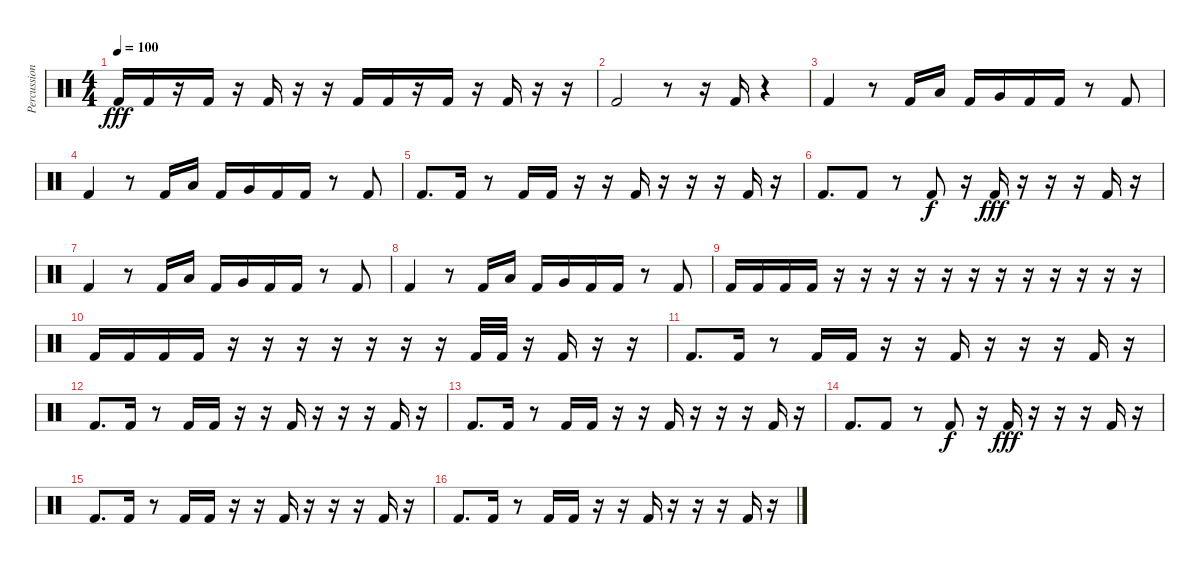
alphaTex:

\track ("Percussion" "Percussion") {instrument percussion}
\staff {score}
\articulation defaults
\ts (4 4)
\tempo 100
\clef neutral
\ks c "Kick (hit) 2".16{dy fff} "Kick (hit) 2".16
r.16 "Kick (hit) 2".16 r.16 "Kick (hit) 2".16 r.16 r.16 "Kick (hit) 2".16 "Kick (hit) 2".16 r.16 "Kick (hit) 2".16 r.16 "Kick (hit) 2".16 r.16 r.16 |
"Kick (hit) 2".2 r.8 r.16 "Kick (hit) 2".16 r.4 |
"Kick (hit) 2".4 r.8 "Kick (hit) 2".16 "Low Tom (hit)".16 "Kick (hit) 2".16 "Very Low Tom (hit)".16 "Kick (hit) 2".16 "Kick (hit) 2".16 r.8 "Kick (hit) 2".8 |
"Kick (hit) 2".4 r.8 "Kick (hit) 2".16 "Low Tom (hit)".16 "Kick (hit) 2".16 "Very Low Tom (hit)".16 "Kick (hit) 2".16 "Kick (hit) 2".16 r.8 "Kick (hit) 2".8 |
"Kick (hit) 2".8{d} "Kick (hit) 2".16 r.8 "Kick (hit) 2".16 "Kick (hit) 2".16 r.16 r.16 "Kick (hit) 2".16 r.16 r.16 r.16 "Kick (hit) 2".16 r.16 |
"Kick (hit) 2".8{d} "Kick (hit) 2".8 r.8 "Kick (hit) 2".8{dy f} r.16 "Kick (hit) 2".16{dy fff} r.16 r.16 r.16 "Kick (hit) 2".16 r.16 |
"Kick (hit) 2".4 r.8 "Kick (hit) 2".16 "Low Tom (hit)".16 "Kick (hit) 2".16 "Very Low Tom (hit)".16 "Kick (hit) 2".16 "Kick (hit) 2".16 r.8 "Kick (hit) 2".8 |
"Kick (hit) 2".4 r.8 "Kick (hit) 2".16 "Low Tom (hit)".16 "Kick (hit) 2".16 "Very Low Tom (hit)".16 "Kick (hit) 2".16 "Kick (hit) 2".16 r.8 "Kick (hit) 2".8 |
"Kick (hit) 2".16 "Kick (hit) 2".16 "Kick (hit) 2".16 "Kick (hit) 2".16 r.16 r.16 r.16 r.16 r.16 r.16 r.16 r.16 r.16 r.16 r.16 r.16 |
"Kick (hit) 2".16 "Kick (hit) 2".16 "Kick (hit) 2".16 "Kick (hit) 2".16 r.16 r.16 r.16 r.16 r.16 r.16 r.16 "Kick (hit) 2".32 "Kick (hit) 2".32 r.16 "Kick (hit) 2".16 r.16 r.16 |
"Kick (hit) 2".8{d} "Kick (hit) 2".16 r.8 "Kick (hit) 2".16 "Kick (hit) 2".16 r.16 r.16 "Kick (hit) 2".16 r.16 r.16 r.16 "Kick (hit) 2".16 r.16 |
"Kick (hit) 2".8{d} "Kick (hit) 2".16 r.8 "Kick (hit) 2".16 "Kick (hit) 2".16 r.16 r.16 "Kick (hit) 2".16 r.16 r.16 r.16 "Kick (hit) 2".16 r.16 |
"Kick (hit) 2".8{d} "Kick (hit) 2".16 r.8 "Kick (hit) 2".16 "Kick (hit) 2".16 r.16 r.16 "Kick (hit) 2".16 r.16 r.16 r.16 "Kick (hit) 2".16 r.16 |
"Kick (hit) 2".8{d} "Kick (hit) 2".8 r.8 "Kick (hit) 2".8{dy f} r.16 "Kick (hit) 2".16{dy fff} r.16 r.16 r.16 "Kick (hit) 2".16 r.16 |
"Kick (hit) 2".8{d} "Kick (hit) 2".16 r.8 "Kick (hit) 2".16 "Kick (hit) 2".16 r.16 r.16 "Kick (hit) 2".16 r.16 r.16 r.16 "Kick (hit) 2".16 r.16 |
"Kick (hit) 2".8{d} "Kick (hit) 2".16 r.8 "Kick (hit) 2".16 "Kick (hit) 2".16 r.16 r.16 "Kick (hit) 2".16 r.16 r.16 r.16 "Kick (hit) 2".16 r.16
